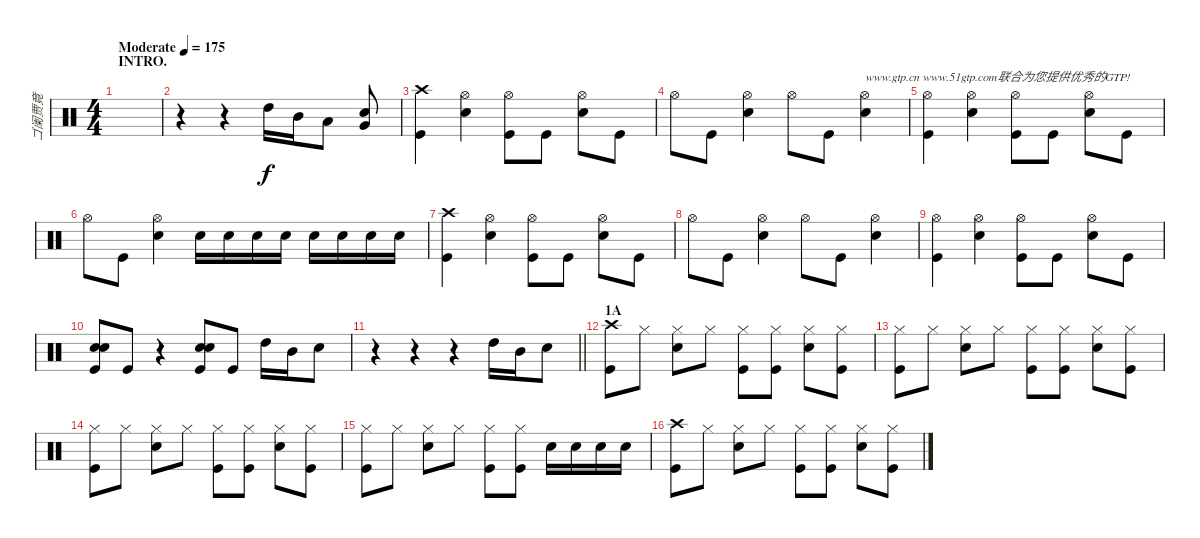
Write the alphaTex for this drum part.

\track ("ゴ阑贾竟" "ゴ阑贾竟") {instrument percussion}
\staff {score}
\articulation defaults
\ts (4 4)
\section ("" "INTRO.")
\tempo (175 "Moderate")
\clef neutral
\ks c
|
r.4 r.4 "High Tom (hit)".16 "Mid Tom (hit)".16 "Low Tom (hit)".8 ("Very Low Tom (hit)" "Snare (hit) 2").8 |
("Kick (hit)" "Crash high (hit)").4 ("Snare (hit) 2" "Hi-Hat (open)").4 ("Kick (hit)" "Hi-Hat (open)").8 "Kick (hit)".8 ("Hi-Hat (open)" "Snare (hit) 2").8 "Kick (hit)".8 |
"Hi-Hat (open)".8 "Kick (hit)".8 ("Hi-Hat (open)" "Snare (hit) 2").4 "Hi-Hat (open)".8 "Kick (hit)".8 ("Hi-Hat (open)" "Snare (hit) 2").4{txt "www.gtp.cn www.51gtp.com联合为您提供优秀的GTP!"} |
("Hi-Hat (open)" "Kick (hit)").4 ("Hi-Hat (open)" "Snare (hit) 2").4 ("Kick (hit)" "Hi-Hat (open)").8 "Kick (hit)".8 ("Hi-Hat (open)" "Snare (hit) 2").8 "Kick (hit)".8 |
"Hi-Hat (open)".8 "Kick (hit)".8 ("Hi-Hat (open)" "Snare (hit) 2").4 "Snare (hit) 2".16 "Snare (hit) 2".16 "Snare (hit) 2".16 "Snare (hit) 2".16 "Snare (hit) 2".16 "Snare (hit) 2".16 "Snare (hit) 2".16 "Snare (hit) 2".16 |
("Crash high (hit)" "Kick (hit)").4 ("Snare (hit) 2" "Hi-Hat (open)").4 ("Kick (hit)" "Hi-Hat (open)").8 "Kick (hit)".8 ("Hi-Hat (open)" "Snare (hit) 2").8 "Kick (hit)".8 |
"Hi-Hat (open)".8 "Kick (hit)".8 ("Hi-Hat (open)" "Snare (hit) 2").4 "Hi-Hat (open)".8 "Kick (hit)".8 ("Hi-Hat (open)" "Snare (hit) 2").4 |
("Hi-Hat (open)" "Kick (hit)").4 ("Hi-Hat (open)" "Snare (hit) 2").4 ("Kick (hit)" "Hi-Hat (open)").8 "Kick (hit)".8 ("Hi-Hat (open)" "Snare (hit) 2").8 "Kick (hit)".8 |
("Snare (hit) 2" "Snare (hit) 2" "Kick (hit)").8 "Kick (hit)".8 r.4 ("Snare (hit) 2" "Snare (hit) 2" "Kick (hit)").8 "Kick (hit)".8 "High Tom (hit)".16 "Mid Tom (hit)".16 "Snare (hit) 2".8 |
\barLineRight lightlight
r.4 r.4 r.4 "High Tom (hit)".16 "Mid Tom (hit)".16 "Snare (hit) 2".8 |
\section ("" "1A")
("Crash high (hit)" "Kick (hit)").8 "Hi-Hat (closed)".8 ("Hi-Hat (closed)" "Snare (hit) 2").8 "Hi-Hat (closed)".8 ("Hi-Hat (closed)" "Kick (hit)").8 ("Hi-Hat (closed)" "Kick (hit)").8 ("Hi-Hat (closed)" "Snare (hit) 2").8 ("Hi-Hat (closed)" "Kick (hit)").8 |
("Hi-Hat (closed)" "Kick (hit)").8 "Hi-Hat (closed)".8 ("Hi-Hat (closed)" "Snare (hit) 2").8 "Hi-Hat (closed)".8 ("Hi-Hat (closed)" "Kick (hit)").8 ("Hi-Hat (closed)" "Kick (hit)").8 ("Hi-Hat (closed)" "Snare (hit) 2").8 ("Hi-Hat (closed)" "Kick (hit)").8 |
("Hi-Hat (closed)" "Kick (hit)").8 "Hi-Hat (closed)".8 ("Hi-Hat (closed)" "Snare (hit) 2").8 "Hi-Hat (closed)".8 ("Hi-Hat (closed)" "Kick (hit)").8 ("Hi-Hat (closed)" "Kick (hit)").8 ("Hi-Hat (closed)" "Snare (hit) 2").8 ("Hi-Hat (closed)" "Kick (hit)").8 |
("Hi-Hat (closed)" "Kick (hit)").8 "Hi-Hat (closed)".8 ("Hi-Hat (closed)" "Snare (hit) 2").8 "Hi-Hat (closed)".8 ("Hi-Hat (closed)" "Kick (hit)").8 ("Hi-Hat (closed)" "Kick (hit)").8 "Snare (hit) 2".16 "Snare (hit) 2".16 "Snare (hit) 2".16 "Snare (hit) 2".16 |
("Crash high (hit)" "Kick (hit)").8 "Hi-Hat (closed)".8 ("Hi-Hat (closed)" "Snare (hit) 2").8 "Hi-Hat (closed)".8 ("Hi-Hat (closed)" "Kick (hit)").8 ("Hi-Hat (closed)" "Kick (hit)").8 ("Hi-Hat (closed)" "Snare (hit) 2").8 ("Hi-Hat (closed)" "Kick (hit)").8
